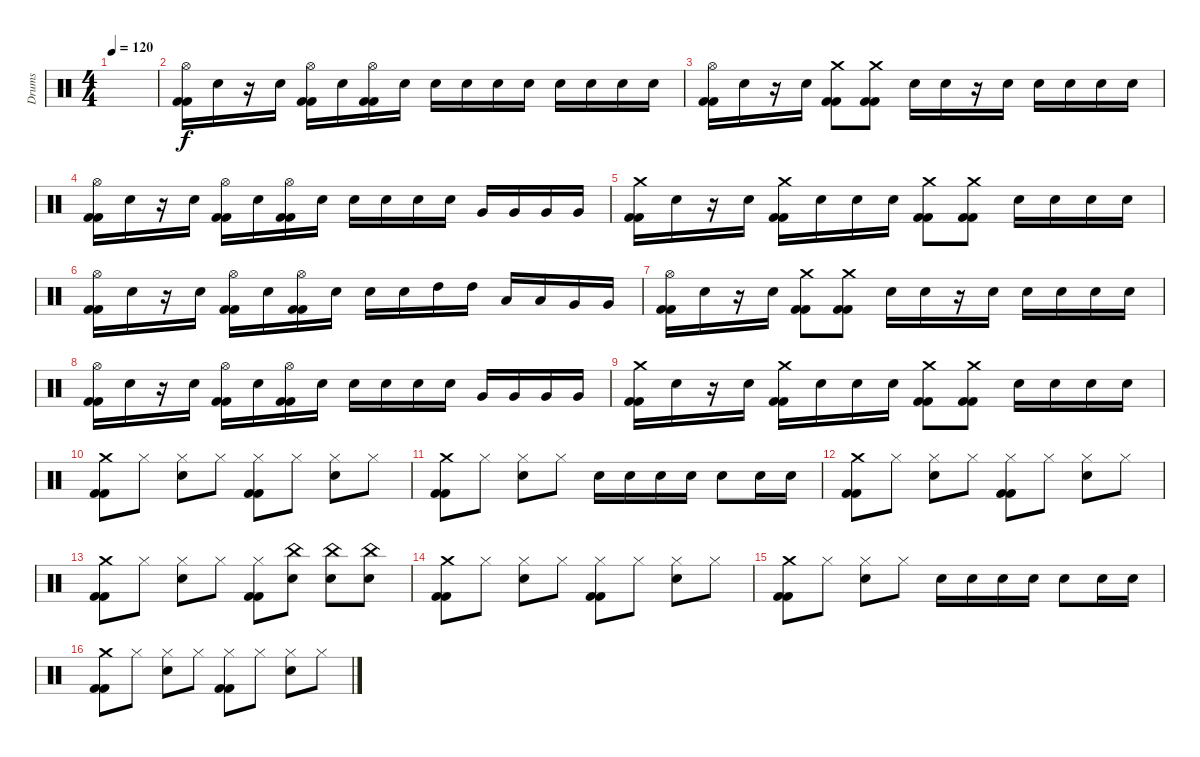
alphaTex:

\track ("Drums" "Drums") {instrument percussion}
\staff {score}
\articulation defaults
\ts (4 4)
\tempo 120
\clef neutral
\ks c
|
("Hi-Hat (open)" "Kick (hit) 2" "Kick (hit) 2").16 "Electric Snare (hit)".16 r.16 "Electric Snare (hit)".16 ("Hi-Hat (open)" "Kick (hit) 2" "Kick (hit) 2").16 "Electric Snare (hit)".16 ("Kick (hit) 2" "Kick (hit) 2" "Hi-Hat (open)").16 "Electric Snare (hit)".16 "Electric Snare (hit)".16 "Electric Snare (hit)".16 "Electric Snare (hit)".16 "Electric Snare (hit)".16 "Electric Snare (hit)".16 "Electric Snare (hit)".16 "Electric Snare (hit)".16 "Electric Snare (hit)".16 |
("Hi-Hat (open)" "Kick (hit) 2" "Kick (hit) 2").16 "Electric Snare (hit)".16 r.16 "Electric Snare (hit)".16 ("Kick (hit) 2" "Kick (hit) 2" "Crash medium (hit)").8 ("Crash medium (hit)" "Kick (hit) 2" "Kick (hit) 2").8 "Electric Snare (hit)".16 "Electric Snare (hit)".16 r.16 "Electric Snare (hit)".16 "Electric Snare (hit)".16 "Electric Snare (hit)".16 "Electric Snare (hit)".16 "Electric Snare (hit)".16 |
("Hi-Hat (open)" "Kick (hit) 2" "Kick (hit) 2").16 "Electric Snare (hit)".16 r.16 "Electric Snare (hit)".16 ("Hi-Hat (open)" "Kick (hit) 2" "Kick (hit) 2").16 "Electric Snare (hit)".16 ("Kick (hit) 2" "Kick (hit) 2" "Hi-Hat (open)").16 "Electric Snare (hit)".16 "Electric Snare (hit)".16 "Electric Snare (hit)".16 "Electric Snare (hit)".16 "Electric Snare (hit)".16 "Very Low Tom (hit)".16 "Very Low Tom (hit)".16 "Very Low Tom (hit)".16 "Very Low Tom (hit)".16 |
("Crash medium (hit)" "Kick (hit) 2" "Kick (hit) 2").16 "Electric Snare (hit)".16 r.16 "Electric Snare (hit)".16 ("Kick (hit) 2" "Kick (hit) 2" "Crash medium (hit)").16 "Electric Snare (hit)".16 "Electric Snare (hit)".16 "Electric Snare (hit)".16 ("Crash medium (hit)" "Kick (hit) 2" "Kick (hit) 2").8 ("Kick (hit) 2" "Kick (hit) 2" "Crash medium (hit)").8 "Electric Snare (hit)".16 "Electric Snare (hit)".16 "Electric Snare (hit)".16 "Electric Snare (hit)".16 |
("Hi-Hat (open)" "Kick (hit) 2" "Kick (hit) 2").16 "Electric Snare (hit)".16 r.16 "Electric Snare (hit)".16 ("Hi-Hat (open)" "Kick (hit) 2" "Kick (hit) 2").16 "Electric Snare (hit)".16 ("Kick (hit) 2" "Kick (hit) 2" "Hi-Hat (open)").16 "Electric Snare (hit)".16 "Electric Snare (hit)".16 "Electric Snare (hit)".16 "High Tom (hit)".16 "High Tom (hit)".16 "Low Tom (hit)".16 "Low Tom (hit)".16 "Very Low Tom (hit)".16 "Very Low Tom (hit)".16 |
("Hi-Hat (open)" "Kick (hit) 2" "Kick (hit) 2").16 "Electric Snare (hit)".16 r.16 "Electric Snare (hit)".16 ("Kick (hit) 2" "Kick (hit) 2" "Crash medium (hit)").8 ("Crash medium (hit)" "Kick (hit) 2" "Kick (hit) 2").8 "Electric Snare (hit)".16 "Electric Snare (hit)".16 r.16 "Electric Snare (hit)".16 "Electric Snare (hit)".16 "Electric Snare (hit)".16 "Electric Snare (hit)".16 "Electric Snare (hit)".16 |
("Hi-Hat (open)" "Kick (hit) 2" "Kick (hit) 2").16 "Electric Snare (hit)".16 r.16 "Electric Snare (hit)".16 ("Hi-Hat (open)" "Kick (hit) 2" "Kick (hit) 2").16 "Electric Snare (hit)".16 ("Kick (hit) 2" "Kick (hit) 2" "Hi-Hat (open)").16 "Electric Snare (hit)".16 "Electric Snare (hit)".16 "Electric Snare (hit)".16 "Electric Snare (hit)".16 "Electric Snare (hit)".16 "Very Low Tom (hit)".16 "Very Low Tom (hit)".16 "Very Low Tom (hit)".16 "Very Low Tom (hit)".16 |
("Crash medium (hit)" "Kick (hit) 2" "Kick (hit) 2").16 "Electric Snare (hit)".16 r.16 "Electric Snare (hit)".16 ("Kick (hit) 2" "Kick (hit) 2" "Crash medium (hit)").16 "Electric Snare (hit)".16 "Electric Snare (hit)".16 "Electric Snare (hit)".16 ("Crash medium (hit)" "Kick (hit) 2" "Kick (hit) 2").8 ("Kick (hit) 2" "Kick (hit) 2" "Crash medium (hit)").8 "Electric Snare (hit)".16 "Electric Snare (hit)".16 "Electric Snare (hit)".16 "Electric Snare (hit)".16 |
("Crash medium (hit)" "Kick (hit) 2" "Kick (hit) 2").8 "Hi-Hat (closed)".8 ("Electric Snare (hit)" "Hi-Hat (closed)").8 "Hi-Hat (closed)".8 ("Hi-Hat (closed)" "Kick (hit) 2" "Kick (hit) 2").8 "Hi-Hat (closed)".8 ("Electric Snare (hit)" "Hi-Hat (closed)").8 "Hi-Hat (closed)".8 |
("Crash medium (hit)" "Kick (hit) 2" "Kick (hit) 2").8 "Hi-Hat (closed)".8 ("Electric Snare (hit)" "Hi-Hat (closed)").8 "Hi-Hat (closed)".8 "Electric Snare (hit)".16 "Electric Snare (hit)".16 "Electric Snare (hit)".16 "Electric Snare (hit)".16 "Electric Snare (hit)".8 "Electric Snare (hit)".16 "Electric Snare (hit)".16 |
("Crash medium (hit)" "Kick (hit) 2" "Kick (hit) 2").8 "Hi-Hat (closed)".8 ("Electric Snare (hit)" "Hi-Hat (closed)").8 "Hi-Hat (closed)".8 ("Hi-Hat (closed)" "Kick (hit) 2" "Kick (hit) 2").8 "Hi-Hat (closed)".8 ("Electric Snare (hit)" "Hi-Hat (closed)").8 "Hi-Hat (closed)".8 |
("Crash medium (hit)" "Kick (hit) 2" "Kick (hit) 2").8 "Hi-Hat (closed)".8 ("Electric Snare (hit)" "Hi-Hat (closed)").8 "Hi-Hat (closed)".8 ("Hi-Hat (closed)" "Kick (hit) 2" "Kick (hit) 2").8 ("Electric Snare (hit)" "China (hit)").8 ("Electric Snare (hit)" "China (hit)").8 ("Electric Snare (hit)" "China (hit)").8 |
("Crash medium (hit)" "Kick (hit) 2" "Kick (hit) 2").8 "Hi-Hat (closed)".8 ("Electric Snare (hit)" "Hi-Hat (closed)").8 "Hi-Hat (closed)".8 ("Hi-Hat (closed)" "Kick (hit) 2" "Kick (hit) 2").8 "Hi-Hat (closed)".8 ("Electric Snare (hit)" "Hi-Hat (closed)").8 "Hi-Hat (closed)".8 |
("Crash medium (hit)" "Kick (hit) 2" "Kick (hit) 2").8 "Hi-Hat (closed)".8 ("Electric Snare (hit)" "Hi-Hat (closed)").8 "Hi-Hat (closed)".8 "Electric Snare (hit)".16 "Electric Snare (hit)".16 "Electric Snare (hit)".16 "Electric Snare (hit)".16 "Electric Snare (hit)".8 "Electric Snare (hit)".16 "Electric Snare (hit)".16 |
("Crash medium (hit)" "Kick (hit) 2" "Kick (hit) 2").8 "Hi-Hat (closed)".8 ("Electric Snare (hit)" "Hi-Hat (closed)").8 "Hi-Hat (closed)".8 ("Hi-Hat (closed)" "Kick (hit) 2" "Kick (hit) 2").8 "Hi-Hat (closed)".8 ("Electric Snare (hit)" "Hi-Hat (closed)").8 "Hi-Hat (closed)".8
